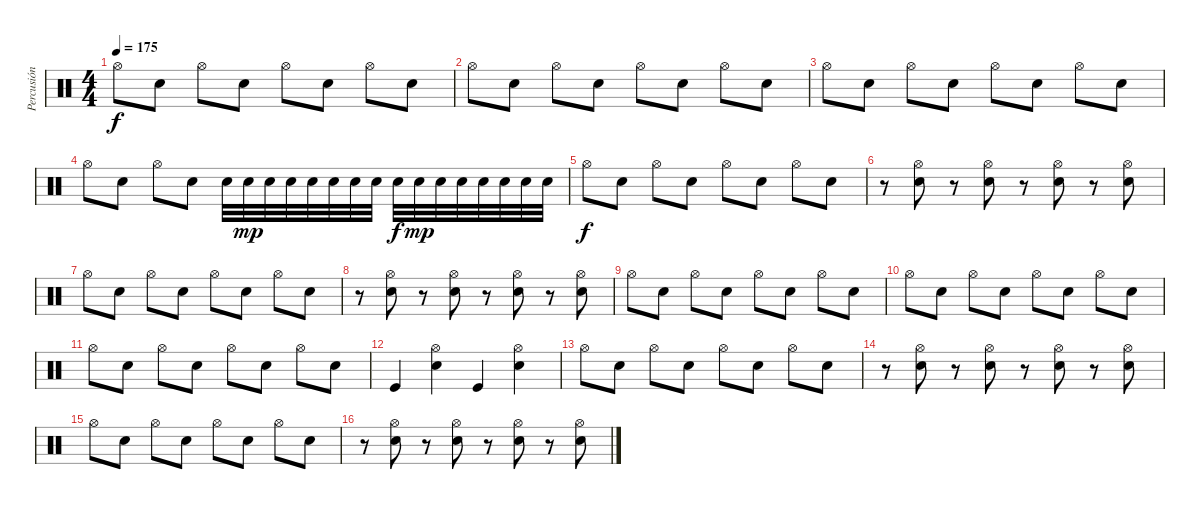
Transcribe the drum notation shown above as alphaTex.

\track ("Percusión" "Percusión") {instrument percussion}
\staff {score}
\articulation defaults
\ts (4 4)
\tempo 175
\clef neutral
\ks c "Hi-Hat (open)".8{dy f} "Snare (hit) 2".8 "Hi-Hat (open)".8 "Snare (hit) 2".8 "Hi-Hat (open)".8 "Snare (hit) 2".8 "Hi-Hat (open)".8 "Snare (hit) 2".8
|
"Hi-Hat (open)".8 "Snare (hit) 2".8 "Hi-Hat (open)".8 "Snare (hit) 2".8 "Hi-Hat (open)".8 "Snare (hit) 2".8 "Hi-Hat (open)".8 "Snare (hit) 2".8 |
"Hi-Hat (open)".8 "Snare (hit) 2".8 "Hi-Hat (open)".8 "Snare (hit) 2".8 "Hi-Hat (open)".8 "Snare (hit) 2".8 "Hi-Hat (open)".8 "Snare (hit) 2".8 |
"Hi-Hat (open)".8 "Snare (hit) 2".8 "Hi-Hat (open)".8 "Snare (hit) 2".8 "Snare (hit) 2".32 "Snare (hit) 2".32{dy mp} "Snare (hit) 2".32 "Snare (hit) 2".32 "Snare (hit) 2".32 "Snare (hit) 2".32 "Snare (hit) 2".32 "Snare (hit) 2".32 "Snare (hit) 2".32{dy f} "Snare (hit) 2".32{dy mp} "Snare (hit) 2".32 "Snare (hit) 2".32 "Snare (hit) 2".32 "Snare (hit) 2".32 "Snare (hit) 2".32 "Snare (hit) 2".32 |
"Hi-Hat (open)".8{dy f} "Snare (hit) 2".8 "Hi-Hat (open)".8 "Snare (hit) 2".8 "Hi-Hat (open)".8 "Snare (hit) 2".8 "Hi-Hat (open)".8 "Snare (hit) 2".8 |
r.8 ("Hi-Hat (open)" "Snare (hit) 2").8 r.8 ("Hi-Hat (open)" "Snare (hit) 2").8 r.8 ("Hi-Hat (open)" "Snare (hit) 2").8 r.8 ("Hi-Hat (open)" "Snare (hit) 2").8 |
"Hi-Hat (open)".8 "Snare (hit) 2".8 "Hi-Hat (open)".8 "Snare (hit) 2".8 "Hi-Hat (open)".8 "Snare (hit) 2".8 "Hi-Hat (open)".8 "Snare (hit) 2".8 |
r.8 ("Hi-Hat (open)" "Snare (hit) 2").8 r.8 ("Hi-Hat (open)" "Snare (hit) 2").8 r.8 ("Hi-Hat (open)" "Snare (hit) 2").8 r.8 ("Hi-Hat (open)" "Snare (hit) 2").8 |
"Hi-Hat (open)".8 "Snare (hit) 2".8 "Hi-Hat (open)".8 "Snare (hit) 2".8 "Hi-Hat (open)".8 "Snare (hit) 2".8 "Hi-Hat (open)".8 "Snare (hit) 2".8 |
"Hi-Hat (open)".8 "Snare (hit) 2".8 "Hi-Hat (open)".8 "Snare (hit) 2".8 "Hi-Hat (open)".8 "Snare (hit) 2".8 "Hi-Hat (open)".8 "Snare (hit) 2".8 |
"Hi-Hat (open)".8 "Snare (hit) 2".8 "Hi-Hat (open)".8 "Snare (hit) 2".8 "Hi-Hat (open)".8 "Snare (hit) 2".8 "Hi-Hat (open)".8 "Snare (hit) 2".8 |
"Kick (hit)".4 ("Snare (hit) 2" "Hi-Hat (open)").4 "Kick (hit)".4 ("Snare (hit) 2" "Hi-Hat (open)").4 |
"Hi-Hat (open)".8 "Snare (hit) 2".8 "Hi-Hat (open)".8 "Snare (hit) 2".8 "Hi-Hat (open)".8 "Snare (hit) 2".8 "Hi-Hat (open)".8 "Snare (hit) 2".8 |
r.8 ("Hi-Hat (open)" "Snare (hit) 2").8 r.8 ("Hi-Hat (open)" "Snare (hit) 2").8 r.8 ("Hi-Hat (open)" "Snare (hit) 2").8 r.8 ("Hi-Hat (open)" "Snare (hit) 2").8 |
"Hi-Hat (open)".8 "Snare (hit) 2".8 "Hi-Hat (open)".8 "Snare (hit) 2".8 "Hi-Hat (open)".8 "Snare (hit) 2".8 "Hi-Hat (open)".8 "Snare (hit) 2".8 |
r.8 ("Hi-Hat (open)" "Snare (hit) 2").8 r.8 ("Hi-Hat (open)" "Snare (hit) 2").8 r.8 ("Hi-Hat (open)" "Snare (hit) 2").8 r.8 ("Hi-Hat (open)" "Snare (hit) 2").8
